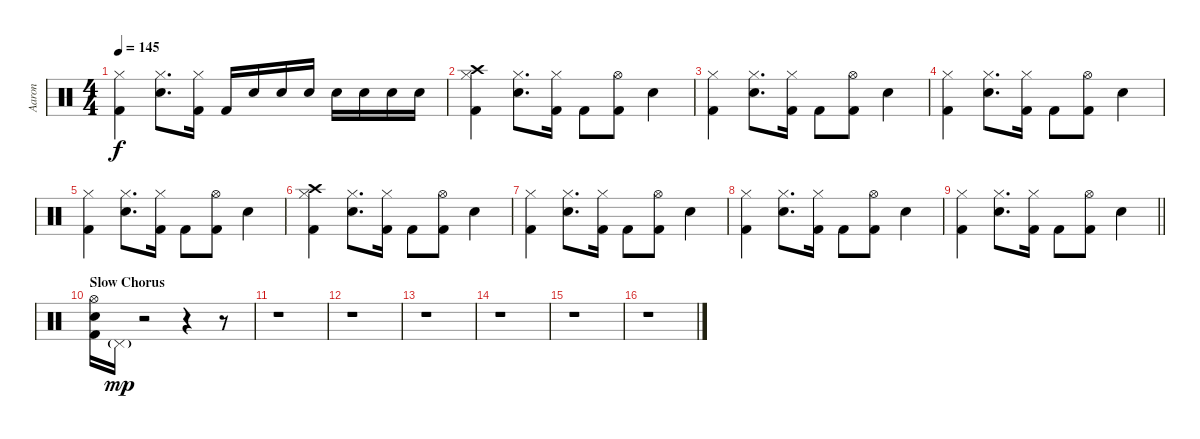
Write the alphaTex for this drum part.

\track ("Aaron" "Aaron") {instrument percussion}
\staff {score}
\articulation defaults
\ts (4 4)
\tempo 145
\clef neutral
\ks c
("Hi-Hat (closed)" "Kick (hit) 2").4{dy f} ("Hi-Hat (closed)" "Snare (hit) 2").8{d} ("Hi-Hat (closed)" "Kick (hit) 2").16 "Kick (hit) 2".16 "Snare (hit) 2".16 "Snare (hit) 2".16 "Snare (hit) 2".16 "Snare (hit) 2".16 "Snare (hit) 2".16 "Snare (hit) 2".16 "Snare (hit) 2".16 |
("Hi-Hat (closed)" "Crash high (hit)" "Kick (hit) 2").4 ("Hi-Hat (closed)" "Snare (hit) 2").8{d} ("Hi-Hat (closed)" "Kick (hit) 2").16 "Kick (hit) 2".8 ("Hi-Hat (open)" "Kick (hit) 2").8 "Snare (hit) 2".4 |
("Hi-Hat (closed)" "Kick (hit) 2").4 ("Hi-Hat (closed)" "Snare (hit) 2").8{d} ("Hi-Hat (closed)" "Kick (hit) 2").16 "Kick (hit) 2".8 ("Hi-Hat (open)" "Kick (hit) 2").8 "Snare (hit) 2".4 |
("Hi-Hat (closed)" "Kick (hit) 2").4 ("Hi-Hat (closed)" "Snare (hit) 2").8{d} ("Hi-Hat (closed)" "Kick (hit) 2").16 "Kick (hit) 2".8 ("Hi-Hat (open)" "Kick (hit) 2").8 "Snare (hit) 2".4 |
("Hi-Hat (closed)" "Kick (hit) 2").4 ("Hi-Hat (closed)" "Snare (hit) 2").8{d} ("Hi-Hat (closed)" "Kick (hit) 2").16 "Kick (hit) 2".8 ("Hi-Hat (open)" "Kick (hit) 2").8 "Snare (hit) 2".4 |
("Hi-Hat (closed)" "Crash high (hit)" "Kick (hit) 2").4 ("Hi-Hat (closed)" "Snare (hit) 2").8{d} ("Hi-Hat (closed)" "Kick (hit) 2").16 "Kick (hit) 2".8 ("Hi-Hat (open)" "Kick (hit) 2").8 "Snare (hit) 2".4 |
("Hi-Hat (closed)" "Kick (hit) 2").4 ("Hi-Hat (closed)" "Snare (hit) 2").8{d} ("Hi-Hat (closed)" "Kick (hit) 2").16 "Kick (hit) 2".8 ("Hi-Hat (open)" "Kick (hit) 2").8 "Snare (hit) 2".4 |
("Hi-Hat (closed)" "Kick (hit) 2").4 ("Hi-Hat (closed)" "Snare (hit) 2").8{d} ("Hi-Hat (closed)" "Kick (hit) 2").16 "Kick (hit) 2".8 ("Hi-Hat (open)" "Kick (hit) 2").8 "Snare (hit) 2".4 |
\barLineRight lightlight
("Hi-Hat (closed)" "Kick (hit) 2").4 ("Hi-Hat (closed)" "Snare (hit) 2").8{d} ("Hi-Hat (closed)" "Kick (hit) 2").16 "Kick (hit) 2".8 ("Hi-Hat (open)" "Kick (hit) 2").8 "Snare (hit) 2".4 |
\section ("" "Slow Chorus")
("Hi-Hat (open)" "Snare (hit) 2" "Kick (hit) 2").16 "Pedal Hi-Hat (hit)"{g}.16{dy mp} r.2 r.4 r.8 |
r.1 |
r.1 |
r.1 |
r.1 |
r.1 |
r.1
